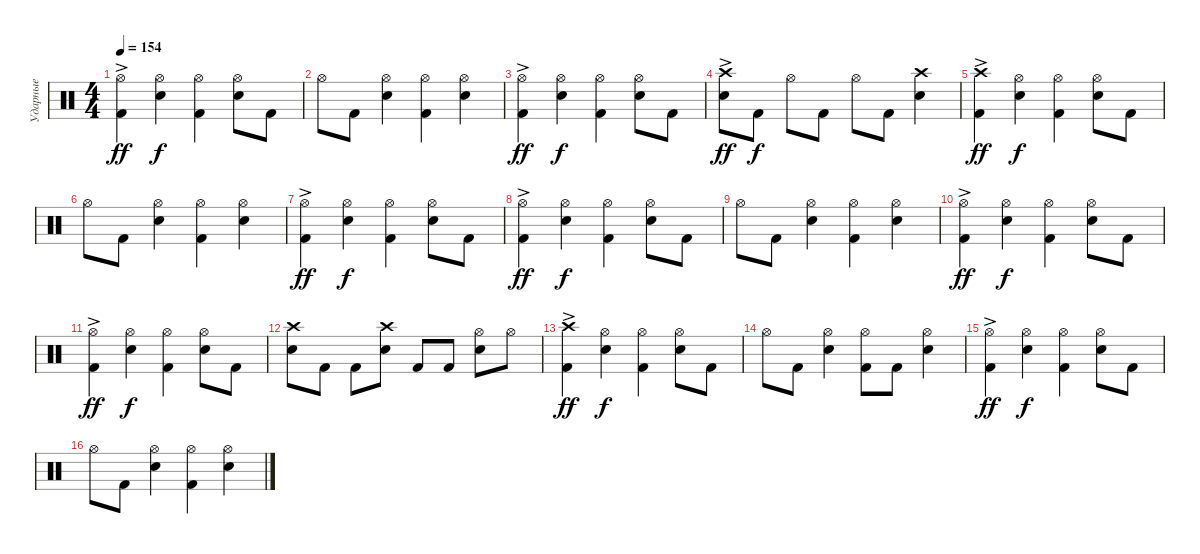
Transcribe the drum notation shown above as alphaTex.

\track ("Ударные" "Ударные") {instrument percussion}
\staff {score}
\articulation defaults
\ts (4 4)
\tempo 154
\clef neutral
\ks c
("Kick (hit) 2" "Hi-Hat (open)"{ac}).4{dy ff} ("Snare (hit) 2" "Hi-Hat (open)").4{dy f} ("Kick (hit) 2" "Hi-Hat (open)").4 ("Snare (hit) 2" "Hi-Hat (open)").8 "Kick (hit) 2".8 |
"Hi-Hat (open)".8 "Kick (hit) 2".8 ("Snare (hit) 2" "Hi-Hat (open)").4 ("Kick (hit) 2" "Hi-Hat (open)").4 ("Snare (hit) 2" "Hi-Hat (open)").4 |
("Kick (hit) 2" "Hi-Hat (open)"{ac}).4{dy ff} ("Snare (hit) 2" "Hi-Hat (open)").4{dy f} ("Kick (hit) 2" "Hi-Hat (open)").4 ("Snare (hit) 2" "Hi-Hat (open)").8 "Kick (hit) 2".8 |
("Snare (hit) 2" "Crash high (hit)"{ac}).8{dy ff} "Kick (hit) 2".8{dy f} "Hi-Hat (open)".8 "Kick (hit) 2".8 "Hi-Hat (open)".8 "Kick (hit) 2".8 ("Snare (hit) 2" "Crash high (hit)").4 |
("Kick (hit) 2" "Crash high (hit)"{ac}).4{dy ff} ("Snare (hit) 2" "Hi-Hat (open)").4{dy f} ("Kick (hit) 2" "Hi-Hat (open)").4 ("Snare (hit) 2" "Hi-Hat (open)").8 "Kick (hit) 2".8 |
"Hi-Hat (open)".8 "Kick (hit) 2".8 ("Snare (hit) 2" "Hi-Hat (open)").4 ("Kick (hit) 2" "Hi-Hat (open)").4 ("Snare (hit) 2" "Hi-Hat (open)").4 |
("Kick (hit) 2" "Hi-Hat (open)"{ac}).4{dy ff} ("Snare (hit) 2" "Hi-Hat (open)").4{dy f} ("Kick (hit) 2" "Hi-Hat (open)").4 ("Snare (hit) 2" "Hi-Hat (open)").8 "Kick (hit) 2".8 |
("Kick (hit) 2" "Hi-Hat (open)"{ac}).4{dy ff} ("Snare (hit) 2" "Hi-Hat (open)").4{dy f} ("Kick (hit) 2" "Hi-Hat (open)").4 ("Snare (hit) 2" "Hi-Hat (open)").8 "Kick (hit) 2".8 |
"Hi-Hat (open)".8 "Kick (hit) 2".8 ("Snare (hit) 2" "Hi-Hat (open)").4 ("Kick (hit) 2" "Hi-Hat (open)").4 ("Snare (hit) 2" "Hi-Hat (open)").4 |
("Kick (hit) 2" "Hi-Hat (open)"{ac}).4{dy ff} ("Snare (hit) 2" "Hi-Hat (open)").4{dy f} ("Kick (hit) 2" "Hi-Hat (open)").4 ("Snare (hit) 2" "Hi-Hat (open)").8 "Kick (hit) 2".8 |
("Kick (hit) 2" "Hi-Hat (open)"{ac}).4{dy ff} ("Snare (hit) 2" "Hi-Hat (open)").4{dy f} ("Kick (hit) 2" "Hi-Hat (open)").4 ("Snare (hit) 2" "Hi-Hat (open)").8 "Kick (hit) 2".8 |
("Snare (hit) 2" "Crash high (hit)").8 "Kick (hit) 2".8 "Kick (hit) 2".8 ("Snare (hit) 2" "Crash high (hit)").8 "Kick (hit) 2".8 "Kick (hit) 2".8 ("Snare (hit) 2" "Hi-Hat (open)").8 "Hi-Hat (open)".8 |
("Kick (hit) 2" "Crash high (hit)"{ac}).4{dy ff} ("Snare (hit) 2" "Hi-Hat (open)").4{dy f} ("Kick (hit) 2" "Hi-Hat (open)").4 ("Snare (hit) 2" "Hi-Hat (open)").8 "Kick (hit) 2".8 |
"Hi-Hat (open)".8 "Kick (hit) 2".8 ("Snare (hit) 2" "Hi-Hat (open)").4 ("Kick (hit) 2" "Hi-Hat (open)").8 "Kick (hit) 2".8 ("Snare (hit) 2" "Hi-Hat (open)").4 |
("Kick (hit) 2" "Hi-Hat (open)"{ac}).4{dy ff} ("Snare (hit) 2" "Hi-Hat (open)").4{dy f} ("Kick (hit) 2" "Hi-Hat (open)").4 ("Snare (hit) 2" "Hi-Hat (open)").8 "Kick (hit) 2".8 |
"Hi-Hat (open)".8 "Kick (hit) 2".8 ("Snare (hit) 2" "Hi-Hat (open)").4 ("Kick (hit) 2" "Hi-Hat (open)").4 ("Snare (hit) 2" "Hi-Hat (open)").4
